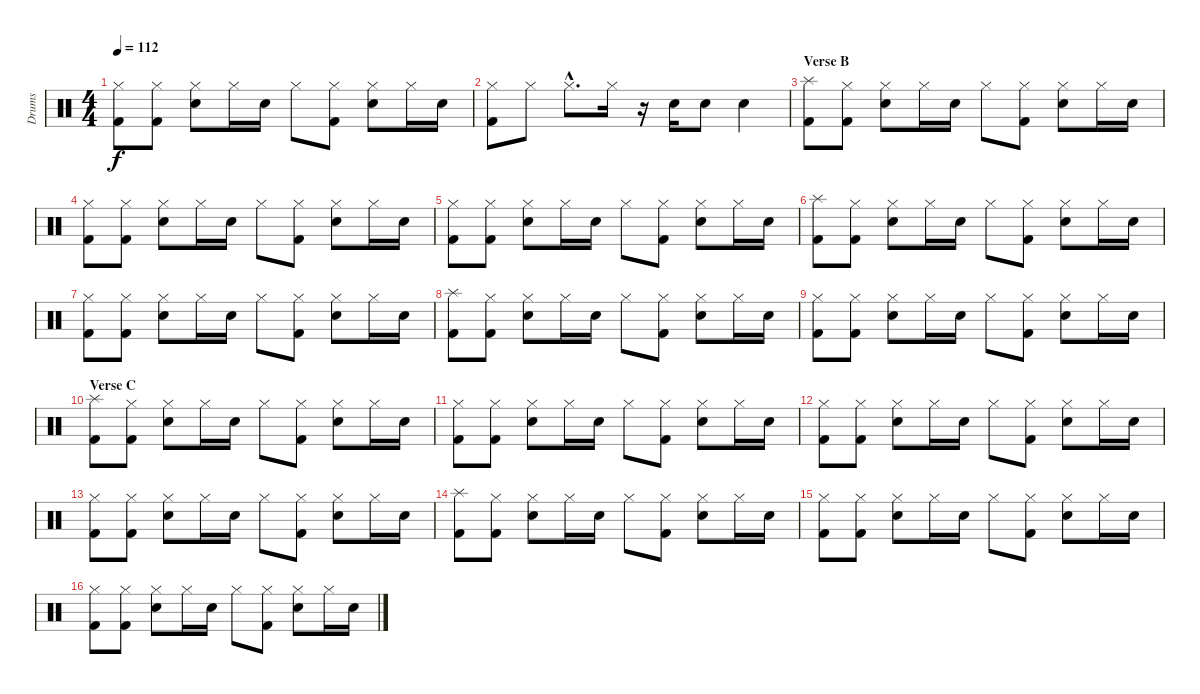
\track ("Drums" "Drums") {instrument percussion}
\staff {score}
\articulation defaults
\ts (4 4)
\tempo 112
\clef neutral
\ks c
("Hi-Hat (closed)" "Kick (hit) 2").8{dy f} ("Hi-Hat (closed)" "Kick (hit) 2").8 ("Hi-Hat (closed)" "Electric Snare (hit)").8 "Hi-Hat (closed)".16 "Electric Snare (hit)".16 "Hi-Hat (closed)".8 ("Hi-Hat (closed)" "Kick (hit) 2").8 ("Hi-Hat (closed)" "Electric Snare (hit)").8 "Hi-Hat (closed)".16 "Electric Snare (hit)".16 |
("Hi-Hat (closed)" "Kick (hit) 2").8 "Hi-Hat (closed)".8 "Hi-Hat (closed)"{hac}.8{d} "Hi-Hat (closed)".16 r.16 "Electric Snare (hit)".16 "Electric Snare (hit)".8 "Electric Snare (hit)".4 |
\section ("" "Verse B")
("Splash (hit)" "Kick (hit) 2").8 ("Hi-Hat (closed)" "Kick (hit) 2").8 ("Hi-Hat (closed)" "Electric Snare (hit)").8 "Hi-Hat (closed)".16 "Electric Snare (hit)".16 "Hi-Hat (closed)".8 ("Hi-Hat (closed)" "Kick (hit) 2").8 ("Hi-Hat (closed)" "Electric Snare (hit)").8 "Hi-Hat (closed)".16 "Electric Snare (hit)".16 |
("Hi-Hat (closed)" "Kick (hit) 2").8 ("Hi-Hat (closed)" "Kick (hit) 2").8 ("Hi-Hat (closed)" "Electric Snare (hit)").8 "Hi-Hat (closed)".16 "Electric Snare (hit)".16 "Hi-Hat (closed)".8 ("Hi-Hat (closed)" "Kick (hit) 2").8 ("Hi-Hat (closed)" "Electric Snare (hit)").8 "Hi-Hat (closed)".16 "Electric Snare (hit)".16 |
("Hi-Hat (closed)" "Kick (hit) 2").8 ("Hi-Hat (closed)" "Kick (hit) 2").8 ("Hi-Hat (closed)" "Electric Snare (hit)").8 "Hi-Hat (closed)".16 "Electric Snare (hit)".16 "Hi-Hat (closed)".8 ("Hi-Hat (closed)" "Kick (hit) 2").8 ("Hi-Hat (closed)" "Electric Snare (hit)").8 "Hi-Hat (closed)".16 "Electric Snare (hit)".16 |
("Splash (hit)" "Kick (hit) 2").8 ("Hi-Hat (closed)" "Kick (hit) 2").8 ("Hi-Hat (closed)" "Electric Snare (hit)").8 "Hi-Hat (closed)".16 "Electric Snare (hit)".16 "Hi-Hat (closed)".8 ("Hi-Hat (closed)" "Kick (hit) 2").8 ("Hi-Hat (closed)" "Electric Snare (hit)").8 "Hi-Hat (closed)".16 "Electric Snare (hit)".16 |
("Hi-Hat (closed)" "Kick (hit) 2").8 ("Hi-Hat (closed)" "Kick (hit) 2").8 ("Hi-Hat (closed)" "Electric Snare (hit)").8 "Hi-Hat (closed)".16 "Electric Snare (hit)".16 "Hi-Hat (closed)".8 ("Hi-Hat (closed)" "Kick (hit) 2").8 ("Hi-Hat (closed)" "Electric Snare (hit)").8 "Hi-Hat (closed)".16 "Electric Snare (hit)".16 |
("Splash (hit)" "Kick (hit) 2").8 ("Hi-Hat (closed)" "Kick (hit) 2").8 ("Hi-Hat (closed)" "Electric Snare (hit)").8 "Hi-Hat (closed)".16 "Electric Snare (hit)".16 "Hi-Hat (closed)".8 ("Hi-Hat (closed)" "Kick (hit) 2").8 ("Hi-Hat (closed)" "Electric Snare (hit)").8 "Hi-Hat (closed)".16 "Electric Snare (hit)".16 |
("Hi-Hat (closed)" "Kick (hit) 2").8 ("Hi-Hat (closed)" "Kick (hit) 2").8 ("Hi-Hat (closed)" "Electric Snare (hit)").8 "Hi-Hat (closed)".16 "Electric Snare (hit)".16 "Hi-Hat (closed)".8 ("Hi-Hat (closed)" "Kick (hit) 2").8 ("Hi-Hat (closed)" "Electric Snare (hit)").8 "Hi-Hat (closed)".16 "Electric Snare (hit)".16 |
\section ("" "Verse C")
("Splash (hit)" "Kick (hit) 2").8 ("Hi-Hat (closed)" "Kick (hit) 2").8 ("Hi-Hat (closed)" "Electric Snare (hit)").8 "Hi-Hat (closed)".16 "Electric Snare (hit)".16 "Hi-Hat (closed)".8 ("Hi-Hat (closed)" "Kick (hit) 2").8 ("Hi-Hat (closed)" "Electric Snare (hit)").8 "Hi-Hat (closed)".16 "Electric Snare (hit)".16 |
("Hi-Hat (closed)" "Kick (hit) 2").8 ("Hi-Hat (closed)" "Kick (hit) 2").8 ("Hi-Hat (closed)" "Electric Snare (hit)").8 "Hi-Hat (closed)".16 "Electric Snare (hit)".16 "Hi-Hat (closed)".8 ("Hi-Hat (closed)" "Kick (hit) 2").8 ("Hi-Hat (closed)" "Electric Snare (hit)").8 "Hi-Hat (closed)".16 "Electric Snare (hit)".16 |
("Hi-Hat (closed)" "Kick (hit) 2").8 ("Hi-Hat (closed)" "Kick (hit) 2").8 ("Hi-Hat (closed)" "Electric Snare (hit)").8 "Hi-Hat (closed)".16 "Electric Snare (hit)".16 "Hi-Hat (closed)".8 ("Hi-Hat (closed)" "Kick (hit) 2").8 ("Hi-Hat (closed)" "Electric Snare (hit)").8 "Hi-Hat (closed)".16 "Electric Snare (hit)".16 |
("Hi-Hat (closed)" "Kick (hit) 2").8 ("Hi-Hat (closed)" "Kick (hit) 2").8 ("Hi-Hat (closed)" "Electric Snare (hit)").8 "Hi-Hat (closed)".16 "Electric Snare (hit)".16 "Hi-Hat (closed)".8 ("Hi-Hat (closed)" "Kick (hit) 2").8 ("Hi-Hat (closed)" "Electric Snare (hit)").8 "Hi-Hat (closed)".16 "Electric Snare (hit)".16 |
("Splash (hit)" "Kick (hit) 2").8 ("Hi-Hat (closed)" "Kick (hit) 2").8 ("Hi-Hat (closed)" "Electric Snare (hit)").8 "Hi-Hat (closed)".16 "Electric Snare (hit)".16 "Hi-Hat (closed)".8 ("Hi-Hat (closed)" "Kick (hit) 2").8 ("Hi-Hat (closed)" "Electric Snare (hit)").8 "Hi-Hat (closed)".16 "Electric Snare (hit)".16 |
("Hi-Hat (closed)" "Kick (hit) 2").8 ("Hi-Hat (closed)" "Kick (hit) 2").8 ("Hi-Hat (closed)" "Electric Snare (hit)").8 "Hi-Hat (closed)".16 "Electric Snare (hit)".16 "Hi-Hat (closed)".8 ("Hi-Hat (closed)" "Kick (hit) 2").8 ("Hi-Hat (closed)" "Electric Snare (hit)").8 "Hi-Hat (closed)".16 "Electric Snare (hit)".16 |
("Hi-Hat (closed)" "Kick (hit) 2").8 ("Hi-Hat (closed)" "Kick (hit) 2").8 ("Hi-Hat (closed)" "Electric Snare (hit)").8 "Hi-Hat (closed)".16 "Electric Snare (hit)".16 "Hi-Hat (closed)".8 ("Hi-Hat (closed)" "Kick (hit) 2").8 ("Hi-Hat (closed)" "Electric Snare (hit)").8 "Hi-Hat (closed)".16 "Electric Snare (hit)".16
